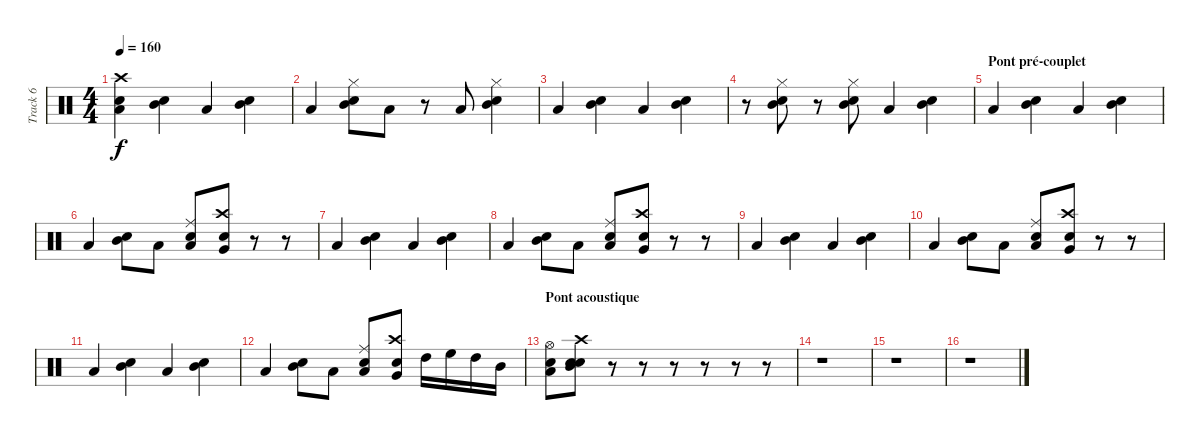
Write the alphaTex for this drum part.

\track ("Track 6" "Track 6") {instrument percussion}
\staff {score}
\articulation defaults
\ts (4 4)
\tempo 160
\clef neutral
\ks c
("Low Tom (hit)" "Snare (hit) 2" "Crash high (hit)").4{dy f} ("Mid Tom (hit)" "Snare (hit) 2").4 "Low Tom (hit)".4 ("Mid Tom (hit)" "Snare (hit) 2").4 |
"Low Tom (hit)".4 ("Mid Tom (hit)" "Hi-Hat (closed)" "Snare (hit) 2").8 "Low Tom (hit)".8 r.8 "Low Tom (hit)".8 ("Mid Tom (hit)" "Hi-Hat (closed)" "Snare (hit) 2").4 |
"Low Tom (hit)".4 ("Mid Tom (hit)" "Snare (hit) 2").4 "Low Tom (hit)".4 ("Mid Tom (hit)" "Snare (hit) 2").4 |
r.8 ("Mid Tom (hit)" "Hi-Hat (closed)" "Snare (hit) 2").8 r.8 ("Mid Tom (hit)" "Hi-Hat (closed)" "Snare (hit) 2").8 "Low Tom (hit)".4 ("Mid Tom (hit)" "Snare (hit) 2").4 |
\section ("" "Pont pré-couplet")
"Low Tom (hit)".4 ("Mid Tom (hit)" "Snare (hit) 2").4 "Low Tom (hit)".4 ("Mid Tom (hit)" "Snare (hit) 2").4 |
"Low Tom (hit)".4 ("Mid Tom (hit)" "Snare (hit) 2").8 "Low Floor Tom (hit)".8 ("Low Tom (hit)" "Ride (middle)" "Electric Snare (hit)").8 ("Very Low Tom (hit)" "Crash high (hit)" "Snare (hit) 2").8 r.8 r.8 |
"Low Tom (hit)".4 ("Mid Tom (hit)" "Snare (hit) 2").4 "Low Tom (hit)".4 ("Mid Tom (hit)" "Snare (hit) 2").4 |
"Low Tom (hit)".4 ("Mid Tom (hit)" "Snare (hit) 2").8 "Low Floor Tom (hit)".8 ("Low Tom (hit)" "Ride (middle)" "Electric Snare (hit)").8 ("Very Low Tom (hit)" "Crash high (hit)" "Snare (hit) 2").8 r.8 r.8 |
"Low Tom (hit)".4 ("Mid Tom (hit)" "Snare (hit) 2").4 "Low Tom (hit)".4 ("Mid Tom (hit)" "Snare (hit) 2").4 |
"Low Tom (hit)".4 ("Mid Tom (hit)" "Snare (hit) 2").8 "Low Floor Tom (hit)".8 ("Low Tom (hit)" "Ride (middle)" "Electric Snare (hit)").8 ("Very Low Tom (hit)" "Crash high (hit)" "Snare (hit) 2").8 r.8 r.8 |
"Low Tom (hit)".4 ("Mid Tom (hit)" "Snare (hit) 2").4 "Low Tom (hit)".4 ("Mid Tom (hit)" "Snare (hit) 2").4 |
"Low Tom (hit)".4 ("Mid Tom (hit)" "Snare (hit) 2").8 "Low Floor Tom (hit)".8 ("Low Tom (hit)" "Ride (middle)" "Electric Snare (hit)").8 ("Very Low Tom (hit)" "Crash high (hit)" "Snare (hit) 2").8 "High Tom (hit)".16 "High Floor Tom (hit)".16 "High Tom (hit)".16 "Mid Tom (hit)".16 |
\section ("" "Pont acoustique")
("Low Tom (hit)" "Snare (hit) 2" "Hi-Hat (open)").8 ("Mid Tom (hit)" "Crash high (hit)" "Snare (hit) 2" "Electric Snare (hit)").8 r.8 r.8 r.8 r.8 r.8 r.8 |
r.1 |
r.1 |
r.1
